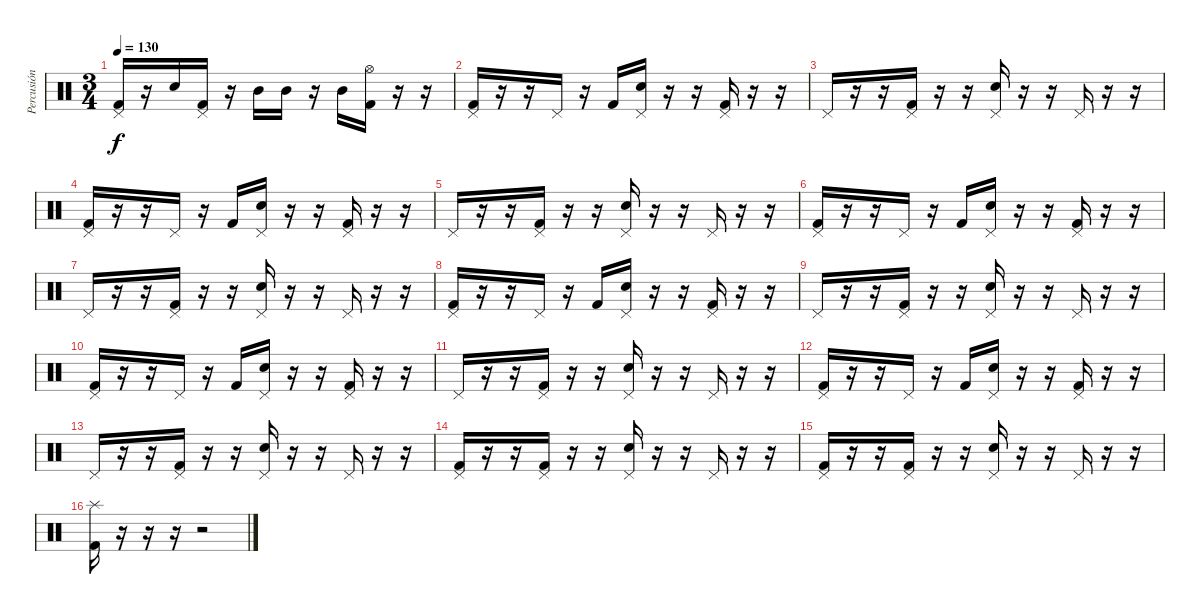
\track ("Percusión" "Percusión") {instrument percussion}
\staff {score}
\articulation defaults
\ts (3 4)
\tempo 130
\clef neutral
\ks c
("Pedal Hi-Hat (hit)" "Kick (hit) 2").16{dy f} r.16 "Electric Snare (hit)".16 ("Pedal Hi-Hat (hit)" "Kick (hit) 2").16 r.16 "Mid Tom (hit)".16 "Mid Tom (hit)".16 r.16 "Mid Tom (hit)".16 ("Hi-Hat (open)" "Kick (hit) 2").16 r.16 r.16 |
("Pedal Hi-Hat (hit)" "Kick (hit) 2").16 r.16 r.16 "Pedal Hi-Hat (hit)".16 r.16 "Kick (hit) 2".16 ("Pedal Hi-Hat (hit)" "Electric Snare (hit)").16 r.16 r.16 ("Pedal Hi-Hat (hit)" "Kick (hit) 2").16 r.16 r.16 |
"Pedal Hi-Hat (hit)".16 r.16 r.16 ("Pedal Hi-Hat (hit)" "Kick (hit) 2").16 r.16 r.16 ("Pedal Hi-Hat (hit)" "Electric Snare (hit)").16 r.16 r.16 "Pedal Hi-Hat (hit)".16 r.16 r.16 |
("Pedal Hi-Hat (hit)" "Kick (hit) 2").16 r.16 r.16 "Pedal Hi-Hat (hit)".16 r.16 "Kick (hit) 2".16 ("Pedal Hi-Hat (hit)" "Electric Snare (hit)").16 r.16 r.16 ("Pedal Hi-Hat (hit)" "Kick (hit) 2").16 r.16 r.16 |
"Pedal Hi-Hat (hit)".16 r.16 r.16 ("Pedal Hi-Hat (hit)" "Kick (hit) 2").16 r.16 r.16 ("Pedal Hi-Hat (hit)" "Electric Snare (hit)").16 r.16 r.16 "Pedal Hi-Hat (hit)".16 r.16 r.16 |
("Pedal Hi-Hat (hit)" "Kick (hit) 2").16 r.16 r.16 "Pedal Hi-Hat (hit)".16 r.16 "Kick (hit) 2".16 ("Pedal Hi-Hat (hit)" "Electric Snare (hit)").16 r.16 r.16 ("Pedal Hi-Hat (hit)" "Kick (hit) 2").16 r.16 r.16 |
"Pedal Hi-Hat (hit)".16 r.16 r.16 ("Pedal Hi-Hat (hit)" "Kick (hit) 2").16 r.16 r.16 ("Pedal Hi-Hat (hit)" "Electric Snare (hit)").16 r.16 r.16 "Pedal Hi-Hat (hit)".16 r.16 r.16 |
("Pedal Hi-Hat (hit)" "Kick (hit) 2").16 r.16 r.16 "Pedal Hi-Hat (hit)".16 r.16 "Kick (hit) 2".16 ("Pedal Hi-Hat (hit)" "Electric Snare (hit)").16 r.16 r.16 ("Pedal Hi-Hat (hit)" "Kick (hit) 2").16 r.16 r.16 |
"Pedal Hi-Hat (hit)".16 r.16 r.16 ("Pedal Hi-Hat (hit)" "Kick (hit) 2").16 r.16 r.16 ("Pedal Hi-Hat (hit)" "Electric Snare (hit)").16 r.16 r.16 "Pedal Hi-Hat (hit)".16 r.16 r.16 |
("Pedal Hi-Hat (hit)" "Kick (hit) 2").16 r.16 r.16 "Pedal Hi-Hat (hit)".16 r.16 "Kick (hit) 2".16 ("Pedal Hi-Hat (hit)" "Electric Snare (hit)").16 r.16 r.16 ("Pedal Hi-Hat (hit)" "Kick (hit) 2").16 r.16 r.16 |
"Pedal Hi-Hat (hit)".16 r.16 r.16 ("Pedal Hi-Hat (hit)" "Kick (hit) 2").16 r.16 r.16 ("Pedal Hi-Hat (hit)" "Electric Snare (hit)").16 r.16 r.16 "Pedal Hi-Hat (hit)".16 r.16 r.16 |
("Pedal Hi-Hat (hit)" "Kick (hit) 2").16 r.16 r.16 "Pedal Hi-Hat (hit)".16 r.16 "Kick (hit) 2".16 ("Pedal Hi-Hat (hit)" "Electric Snare (hit)").16 r.16 r.16 ("Pedal Hi-Hat (hit)" "Kick (hit) 2").16 r.16 r.16 |
"Pedal Hi-Hat (hit)".16 r.16 r.16 ("Pedal Hi-Hat (hit)" "Kick (hit) 2").16 r.16 r.16 ("Pedal Hi-Hat (hit)" "Electric Snare (hit)").16 r.16 r.16 "Pedal Hi-Hat (hit)".16 r.16 r.16 |
("Pedal Hi-Hat (hit)" "Kick (hit) 2").16 r.16 r.16 ("Pedal Hi-Hat (hit)" "Kick (hit) 2").16 r.16 r.16 ("Pedal Hi-Hat (hit)" "Electric Snare (hit)").16 r.16 r.16 "Pedal Hi-Hat (hit)".16 r.16 r.16 |
("Pedal Hi-Hat (hit)" "Kick (hit) 2").16 r.16 r.16 ("Pedal Hi-Hat (hit)" "Kick (hit) 2").16 r.16 r.16 ("Pedal Hi-Hat (hit)" "Electric Snare (hit)").16 r.16 r.16 "Pedal Hi-Hat (hit)".16 r.16 r.16 |
("Splash (hit)" "Kick (hit) 2").16 r.16 r.16 r.16 r.2
